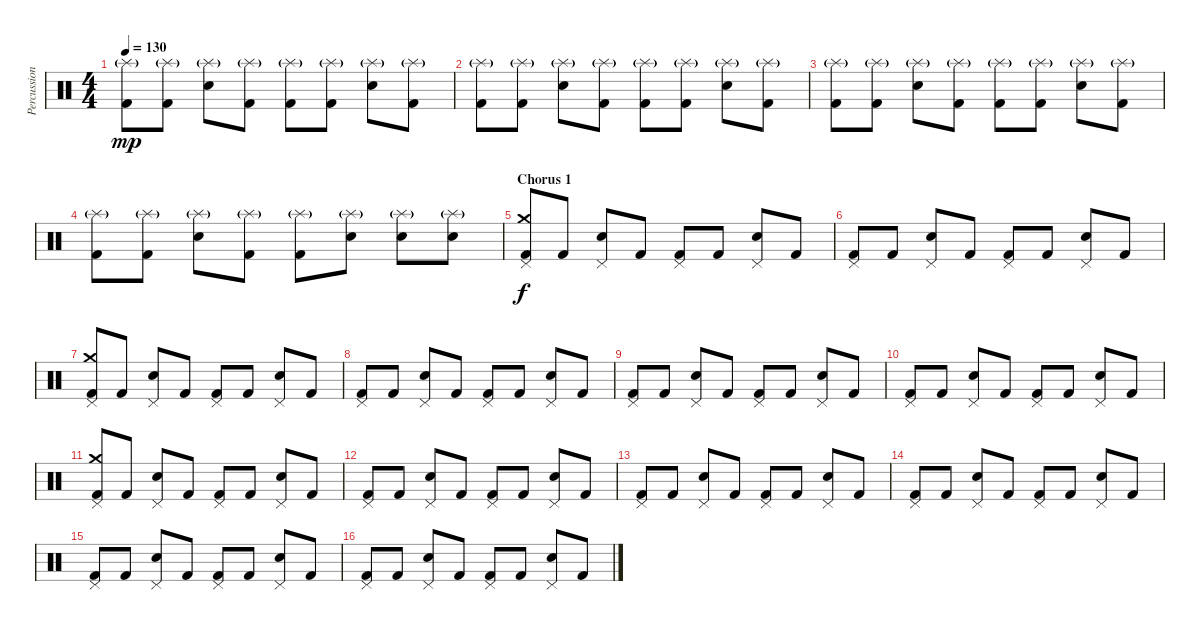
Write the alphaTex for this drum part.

\track ("Percussions" "Percussion") {instrument percussion}
\staff {score}
\articulation defaults
\ts (4 4)
\tempo 130
\clef neutral
\ks c
("Splash (hit)"{g} "Kick (hit) 2").8{dy mp} ("Splash (hit)"{g} "Kick (hit) 2").8 ("Splash (hit)"{g} "Snare (hit) 2").8 ("Splash (hit)"{g} "Kick (hit) 2").8 ("Splash (hit)"{g} "Kick (hit) 2").8 ("Splash (hit)"{g} "Kick (hit) 2").8 ("Splash (hit)"{g} "Snare (hit) 2").8 ("Splash (hit)"{g} "Kick (hit) 2").8 |
("Splash (hit)"{g} "Kick (hit) 2").8 ("Splash (hit)"{g} "Kick (hit) 2").8 ("Splash (hit)"{g} "Snare (hit) 2").8 ("Splash (hit)"{g} "Kick (hit) 2").8 ("Splash (hit)"{g} "Kick (hit) 2").8 ("Splash (hit)"{g} "Kick (hit) 2").8 ("Splash (hit)"{g} "Snare (hit) 2").8 ("Splash (hit)"{g} "Kick (hit) 2").8 |
("Splash (hit)"{g} "Kick (hit) 2").8 ("Splash (hit)"{g} "Kick (hit) 2").8 ("Splash (hit)"{g} "Snare (hit) 2").8 ("Splash (hit)"{g} "Kick (hit) 2").8 ("Splash (hit)"{g} "Kick (hit) 2").8 ("Splash (hit)"{g} "Kick (hit) 2").8 ("Splash (hit)"{g} "Snare (hit) 2").8 ("Splash (hit)"{g} "Kick (hit) 2").8 |
("Splash (hit)"{g} "Kick (hit) 2").8 ("Splash (hit)"{g} "Kick (hit) 2").8 ("Splash (hit)"{g} "Snare (hit) 2").8 ("Splash (hit)"{g} "Kick (hit) 2").8 ("Splash (hit)"{g} "Kick (hit) 2").8 ("Splash (hit)"{g} "Snare (hit) 2").8 ("Splash (hit)"{g} "Snare (hit) 2").8 ("Splash (hit)"{g} "Snare (hit) 2").8 |
\section ("" "Chorus 1")
("Crash medium (hit)" "Pedal Hi-Hat (hit)" "Kick (hit) 2").8{dy f} "Kick (hit) 2".8 ("Pedal Hi-Hat (hit)" "Snare (hit) 2").8 "Kick (hit) 2".8 ("Pedal Hi-Hat (hit)" "Kick (hit) 2").8 "Kick (hit) 2".8 ("Pedal Hi-Hat (hit)" "Snare (hit) 2").8 "Kick (hit) 2".8 |
("Pedal Hi-Hat (hit)" "Kick (hit) 2").8 "Kick (hit) 2".8 ("Pedal Hi-Hat (hit)" "Snare (hit) 2").8 "Kick (hit) 2".8 ("Pedal Hi-Hat (hit)" "Kick (hit) 2").8 "Kick (hit) 2".8 ("Pedal Hi-Hat (hit)" "Snare (hit) 2").8 "Kick (hit) 2".8 |
("Crash medium (hit)" "Pedal Hi-Hat (hit)" "Kick (hit) 2").8 "Kick (hit) 2".8 ("Pedal Hi-Hat (hit)" "Snare (hit) 2").8 "Kick (hit) 2".8 ("Pedal Hi-Hat (hit)" "Kick (hit) 2").8 "Kick (hit) 2".8 ("Pedal Hi-Hat (hit)" "Snare (hit) 2").8 "Kick (hit) 2".8 |
("Pedal Hi-Hat (hit)" "Kick (hit) 2").8 "Kick (hit) 2".8 ("Pedal Hi-Hat (hit)" "Snare (hit) 2").8 "Kick (hit) 2".8 ("Pedal Hi-Hat (hit)" "Kick (hit) 2").8 "Kick (hit) 2".8 ("Pedal Hi-Hat (hit)" "Snare (hit) 2").8 "Kick (hit) 2".8 |
("Pedal Hi-Hat (hit)" "Kick (hit) 2").8 "Kick (hit) 2".8 ("Pedal Hi-Hat (hit)" "Snare (hit) 2").8 "Kick (hit) 2".8 ("Pedal Hi-Hat (hit)" "Kick (hit) 2").8 "Kick (hit) 2".8 ("Pedal Hi-Hat (hit)" "Snare (hit) 2").8 "Kick (hit) 2".8 |
("Pedal Hi-Hat (hit)" "Kick (hit) 2").8 "Kick (hit) 2".8 ("Pedal Hi-Hat (hit)" "Snare (hit) 2").8 "Kick (hit) 2".8 ("Pedal Hi-Hat (hit)" "Kick (hit) 2").8 "Kick (hit) 2".8 ("Pedal Hi-Hat (hit)" "Snare (hit) 2").8 "Kick (hit) 2".8 |
("Crash medium (hit)" "Pedal Hi-Hat (hit)" "Kick (hit) 2").8 "Kick (hit) 2".8 ("Pedal Hi-Hat (hit)" "Snare (hit) 2").8 "Kick (hit) 2".8 ("Pedal Hi-Hat (hit)" "Kick (hit) 2").8 "Kick (hit) 2".8 ("Pedal Hi-Hat (hit)" "Snare (hit) 2").8 "Kick (hit) 2".8 |
("Pedal Hi-Hat (hit)" "Kick (hit) 2").8 "Kick (hit) 2".8 ("Pedal Hi-Hat (hit)" "Snare (hit) 2").8 "Kick (hit) 2".8 ("Pedal Hi-Hat (hit)" "Kick (hit) 2").8 "Kick (hit) 2".8 ("Pedal Hi-Hat (hit)" "Snare (hit) 2").8 "Kick (hit) 2".8 |
("Pedal Hi-Hat (hit)" "Kick (hit) 2").8 "Kick (hit) 2".8 ("Pedal Hi-Hat (hit)" "Snare (hit) 2").8 "Kick (hit) 2".8 ("Pedal Hi-Hat (hit)" "Kick (hit) 2").8 "Kick (hit) 2".8 ("Pedal Hi-Hat (hit)" "Snare (hit) 2").8 "Kick (hit) 2".8 |
("Pedal Hi-Hat (hit)" "Kick (hit) 2").8 "Kick (hit) 2".8 ("Pedal Hi-Hat (hit)" "Snare (hit) 2").8 "Kick (hit) 2".8 ("Pedal Hi-Hat (hit)" "Kick (hit) 2").8 "Kick (hit) 2".8 ("Pedal Hi-Hat (hit)" "Snare (hit) 2").8 "Kick (hit) 2".8 |
("Pedal Hi-Hat (hit)" "Kick (hit) 2").8 "Kick (hit) 2".8 ("Pedal Hi-Hat (hit)" "Snare (hit) 2").8 "Kick (hit) 2".8 ("Pedal Hi-Hat (hit)" "Kick (hit) 2").8 "Kick (hit) 2".8 ("Pedal Hi-Hat (hit)" "Snare (hit) 2").8 "Kick (hit) 2".8 |
("Pedal Hi-Hat (hit)" "Kick (hit) 2").8 "Kick (hit) 2".8 ("Pedal Hi-Hat (hit)" "Snare (hit) 2").8 "Kick (hit) 2".8 ("Pedal Hi-Hat (hit)" "Kick (hit) 2").8 "Kick (hit) 2".8 ("Pedal Hi-Hat (hit)" "Snare (hit) 2").8 "Kick (hit) 2".8
